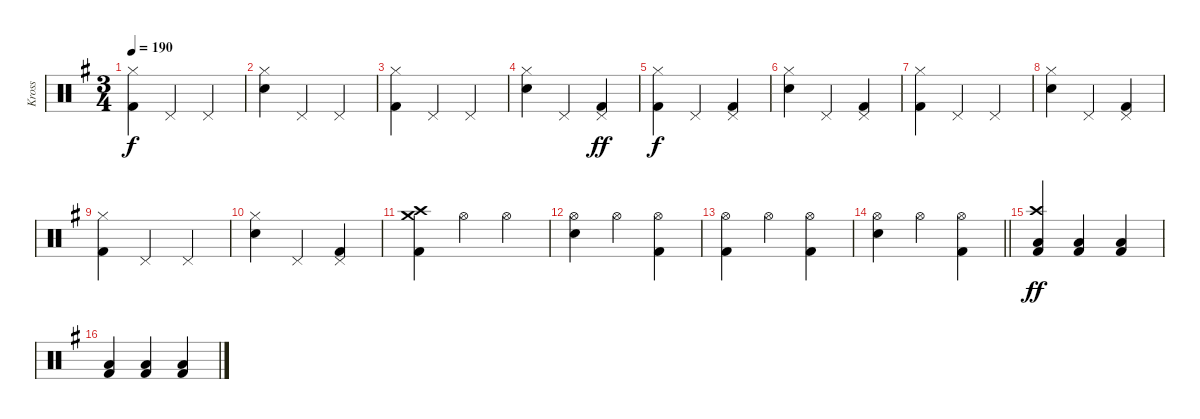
\track ("Kross" "Kross") {instrument percussion}
\staff {score}
\articulation defaults
\ts (3 4)
\tempo 190
\clef neutral
\ks g
("Hi-Hat (closed)" "Kick (hit) 2").4{dy f} "Pedal Hi-Hat (hit)".4 "Pedal Hi-Hat (hit)".4 |
("Hi-Hat (closed)" "Snare (hit) 2").4 "Pedal Hi-Hat (hit)".4 "Pedal Hi-Hat (hit)".4 |
("Hi-Hat (closed)" "Kick (hit) 2").4 "Pedal Hi-Hat (hit)".4 "Pedal Hi-Hat (hit)".4 |
("Hi-Hat (closed)" "Snare (hit) 2").4 "Pedal Hi-Hat (hit)".4 ("Pedal Hi-Hat (hit)" "Kick (hit) 2").4{dy ff} |
("Hi-Hat (closed)" "Kick (hit) 2").4{dy f} "Pedal Hi-Hat (hit)".4 ("Pedal Hi-Hat (hit)" "Kick (hit) 2").4 |
("Hi-Hat (closed)" "Snare (hit) 2").4 "Pedal Hi-Hat (hit)".4 ("Pedal Hi-Hat (hit)" "Kick (hit) 2").4 |
("Hi-Hat (closed)" "Kick (hit) 2").4 "Pedal Hi-Hat (hit)".4 "Pedal Hi-Hat (hit)".4 |
("Hi-Hat (closed)" "Snare (hit) 2").4 "Pedal Hi-Hat (hit)".4 ("Pedal Hi-Hat (hit)" "Kick (hit) 2").4 |
("Hi-Hat (closed)" "Kick (hit) 2").4 "Pedal Hi-Hat (hit)".4 "Pedal Hi-Hat (hit)".4 |
("Hi-Hat (closed)" "Snare (hit) 2").4 "Pedal Hi-Hat (hit)".4 ("Pedal Hi-Hat (hit)" "Kick (hit) 2").4 |
("Crash high (hit)" "Crash medium (hit)" "Kick (hit) 2").4 "Hi-Hat (open)".4 "Hi-Hat (open)".4 |
("Hi-Hat (open)" "Snare (hit) 2").4 "Hi-Hat (open)".4 ("Hi-Hat (open)" "Kick (hit) 2").4 |
("Hi-Hat (open)" "Kick (hit) 2").4 "Hi-Hat (open)".4 ("Hi-Hat (open)" "Kick (hit) 2").4 |
\barLineRight lightlight
("Hi-Hat (open)" "Snare (hit) 2").4 "Hi-Hat (open)".4 ("Hi-Hat (open)" "Kick (hit) 2").4 |
("Crash high (hit)" "Low Floor Tom (hit)" "Kick (hit) 2").4{dy ff} ("Low Floor Tom (hit)" "Kick (hit) 2").4 ("Low Floor Tom (hit)" "Kick (hit) 2").4 |
("Low Floor Tom (hit)" "Kick (hit) 2").4 ("Low Floor Tom (hit)" "Kick (hit) 2").4 ("Low Floor Tom (hit)" "Kick (hit) 2").4
